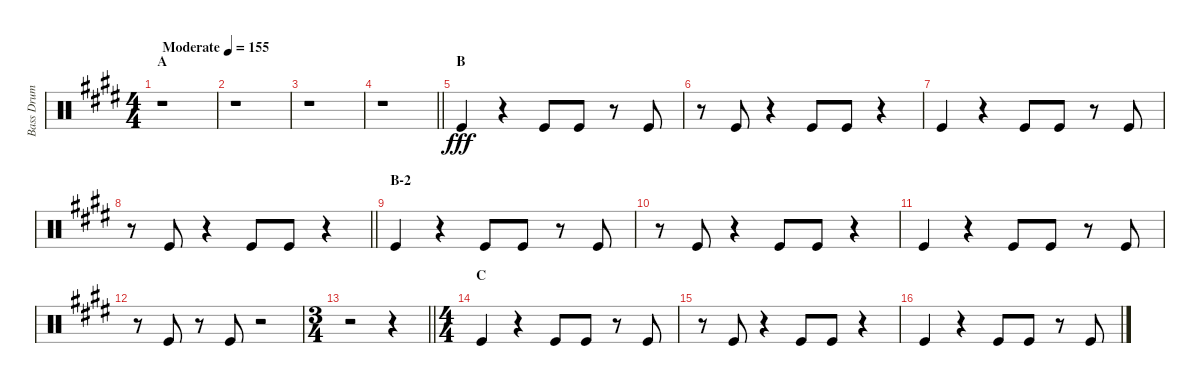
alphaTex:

\track ("Bass Drum" "Bass Drum") {instrument percussion}
\staff {score}
\articulation defaults
\ts (4 4)
\section ("" "A")
\tempo (155 "Moderate")
\clef neutral
\ks e
r.1{dy fff} |
r.1 |
r.1 |
\barLineRight lightlight
r.1 |
\section ("" "B")
"Kick (hit)".4 r.4 "Kick (hit)".8 "Kick (hit)".8 r.8 "Kick (hit)".8 |
r.8 "Kick (hit)".8 r.4 "Kick (hit)".8 "Kick (hit)".8 r.4 |
"Kick (hit)".4 r.4 "Kick (hit)".8 "Kick (hit)".8 r.8 "Kick (hit)".8 |
\barLineRight lightlight
r.8 "Kick (hit)".8 r.4 "Kick (hit)".8 "Kick (hit)".8 r.4 |
\section ("" "B-2")
"Kick (hit)".4 r.4 "Kick (hit)".8 "Kick (hit)".8 r.8 "Kick (hit)".8 |
r.8 "Kick (hit)".8 r.4 "Kick (hit)".8 "Kick (hit)".8 r.4 |
"Kick (hit)".4 r.4 "Kick (hit)".8 "Kick (hit)".8 r.8 "Kick (hit)".8 |
r.8 "Kick (hit)".8 r.8 "Kick (hit)".8 r.2 |
\ts (3 4)
\barLineRight lightlight
r.2 r.4 |
\ts (4 4)
\section ("" "C")
"Kick (hit)".4 r.4 "Kick (hit)".8 "Kick (hit)".8 r.8 "Kick (hit)".8 |
r.8 "Kick (hit)".8 r.4 "Kick (hit)".8 "Kick (hit)".8 r.4 |
"Kick (hit)".4 r.4 "Kick (hit)".8 "Kick (hit)".8 r.8 "Kick (hit)".8
